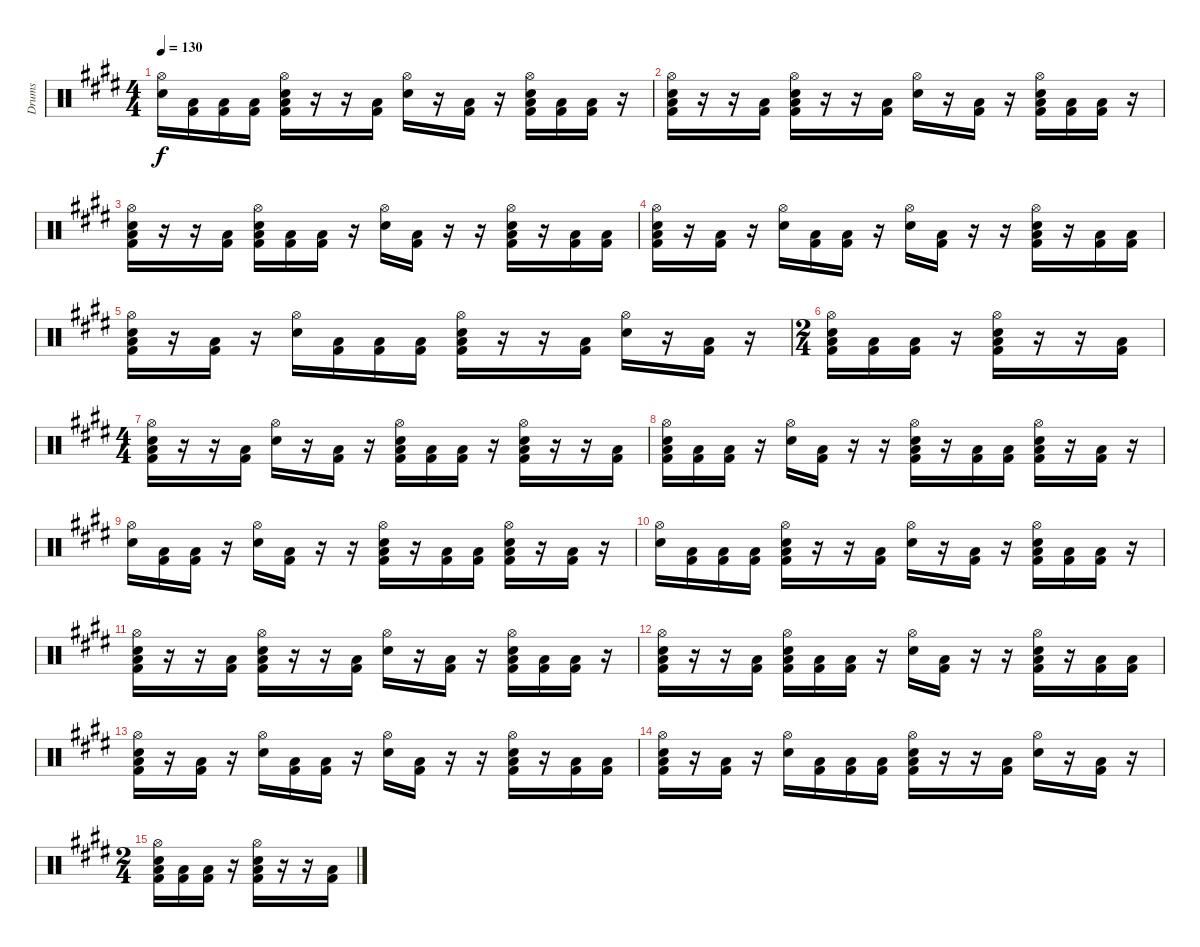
\track ("Drums" "Drums") {instrument percussion}
\staff {score}
\articulation defaults
\ts (4 4)
\tempo 130
\clef neutral
\ks e
("Hi-Hat (open)" "Electric Snare (hit)").16{dy f} ("Low Floor Tom (hit)" "Kick (hit) 2").16 ("Low Floor Tom (hit)" "Kick (hit) 2").16 ("Low Floor Tom (hit)" "Kick (hit) 2").16 ("Low Floor Tom (hit)" "Hi-Hat (open)" "Electric Snare (hit)" "Kick (hit) 2").16 r.16 r.16 ("Low Floor Tom (hit)" "Kick (hit) 2").16 ("Hi-Hat (open)" "Electric Snare (hit)").16 r.16 ("Low Floor Tom (hit)" "Kick (hit) 2").16 r.16 ("Low Floor Tom (hit)" "Hi-Hat (open)" "Electric Snare (hit)" "Kick (hit) 2").16 ("Low Floor Tom (hit)" "Kick (hit) 2").16 ("Low Floor Tom (hit)" "Kick (hit) 2").16 r.16 |
("Low Floor Tom (hit)" "Hi-Hat (open)" "Electric Snare (hit)" "Kick (hit) 2").16 r.16 r.16 ("Low Floor Tom (hit)" "Kick (hit) 2").16 ("Low Floor Tom (hit)" "Hi-Hat (open)" "Electric Snare (hit)" "Kick (hit) 2").16 r.16 r.16 ("Low Floor Tom (hit)" "Kick (hit) 2").16 ("Hi-Hat (open)" "Electric Snare (hit)").16 r.16 ("Low Floor Tom (hit)" "Kick (hit) 2").16 r.16 ("Low Floor Tom (hit)" "Hi-Hat (open)" "Electric Snare (hit)" "Kick (hit) 2").16 ("Low Floor Tom (hit)" "Kick (hit) 2").16 ("Low Floor Tom (hit)" "Kick (hit) 2").16 r.16 |
("Low Floor Tom (hit)" "Hi-Hat (open)" "Electric Snare (hit)" "Kick (hit) 2").16 r.16 r.16 ("Low Floor Tom (hit)" "Kick (hit) 2").16 ("Low Floor Tom (hit)" "Hi-Hat (open)" "Electric Snare (hit)" "Kick (hit) 2").16 ("Low Floor Tom (hit)" "Kick (hit) 2").16 ("Low Floor Tom (hit)" "Kick (hit) 2").16 r.16 ("Hi-Hat (open)" "Electric Snare (hit)").16 ("Low Floor Tom (hit)" "Kick (hit) 2").16 r.16 r.16 ("Low Floor Tom (hit)" "Hi-Hat (open)" "Electric Snare (hit)" "Kick (hit) 2").16 r.16 ("Low Floor Tom (hit)" "Kick (hit) 2").16 ("Low Floor Tom (hit)" "Kick (hit) 2").16 |
("Low Floor Tom (hit)" "Hi-Hat (open)" "Electric Snare (hit)" "Kick (hit) 2").16 r.16 ("Low Floor Tom (hit)" "Kick (hit) 2").16 r.16 ("Hi-Hat (open)" "Electric Snare (hit)").16 ("Low Floor Tom (hit)" "Kick (hit) 2").16 ("Low Floor Tom (hit)" "Kick (hit) 2").16 r.16 ("Hi-Hat (open)" "Electric Snare (hit)").16 ("Low Floor Tom (hit)" "Kick (hit) 2").16 r.16 r.16 ("Low Floor Tom (hit)" "Hi-Hat (open)" "Electric Snare (hit)" "Kick (hit) 2").16 r.16 ("Low Floor Tom (hit)" "Kick (hit) 2").16 ("Low Floor Tom (hit)" "Kick (hit) 2").16 |
("Low Floor Tom (hit)" "Hi-Hat (open)" "Electric Snare (hit)" "Kick (hit) 2").16 r.16 ("Low Floor Tom (hit)" "Kick (hit) 2").16 r.16 ("Hi-Hat (open)" "Electric Snare (hit)").16 ("Low Floor Tom (hit)" "Kick (hit) 2").16 ("Low Floor Tom (hit)" "Kick (hit) 2").16 ("Low Floor Tom (hit)" "Kick (hit) 2").16 ("Low Floor Tom (hit)" "Hi-Hat (open)" "Electric Snare (hit)" "Kick (hit) 2").16 r.16 r.16 ("Low Floor Tom (hit)" "Kick (hit) 2").16 ("Hi-Hat (open)" "Electric Snare (hit)").16 r.16 ("Low Floor Tom (hit)" "Kick (hit) 2").16 r.16 |
\ts (2 4)
("Low Floor Tom (hit)" "Hi-Hat (open)" "Electric Snare (hit)" "Kick (hit) 2").16 ("Low Floor Tom (hit)" "Kick (hit) 2").16 ("Low Floor Tom (hit)" "Kick (hit) 2").16 r.16 ("Low Floor Tom (hit)" "Hi-Hat (open)" "Electric Snare (hit)" "Kick (hit) 2").16 r.16 r.16 ("Low Floor Tom (hit)" "Kick (hit) 2").16 |
\ts (4 4)
("Low Floor Tom (hit)" "Hi-Hat (open)" "Electric Snare (hit)" "Kick (hit) 2").16 r.16 r.16 ("Low Floor Tom (hit)" "Kick (hit) 2").16 ("Hi-Hat (open)" "Electric Snare (hit)").16 r.16 ("Low Floor Tom (hit)" "Kick (hit) 2").16 r.16 ("Low Floor Tom (hit)" "Hi-Hat (open)" "Electric Snare (hit)" "Kick (hit) 2").16 ("Low Floor Tom (hit)" "Kick (hit) 2").16 ("Low Floor Tom (hit)" "Kick (hit) 2").16 r.16 ("Low Floor Tom (hit)" "Hi-Hat (open)" "Electric Snare (hit)" "Kick (hit) 2").16 r.16 r.16 ("Low Floor Tom (hit)" "Kick (hit) 2").16 |
("Low Floor Tom (hit)" "Hi-Hat (open)" "Electric Snare (hit)" "Kick (hit) 2").16 ("Low Floor Tom (hit)" "Kick (hit) 2").16 ("Low Floor Tom (hit)" "Kick (hit) 2").16 r.16 ("Hi-Hat (open)" "Electric Snare (hit)").16 ("Low Floor Tom (hit)" "Kick (hit) 2").16 r.16 r.16 ("Low Floor Tom (hit)" "Hi-Hat (open)" "Electric Snare (hit)" "Kick (hit) 2").16 r.16 ("Low Floor Tom (hit)" "Kick (hit) 2").16 ("Low Floor Tom (hit)" "Kick (hit) 2").16 ("Low Floor Tom (hit)" "Hi-Hat (open)" "Electric Snare (hit)" "Kick (hit) 2").16 r.16 ("Low Floor Tom (hit)" "Kick (hit) 2").16 r.16 |
("Hi-Hat (open)" "Electric Snare (hit)").16 ("Low Floor Tom (hit)" "Kick (hit) 2").16 ("Low Floor Tom (hit)" "Kick (hit) 2").16 r.16 ("Hi-Hat (open)" "Electric Snare (hit)").16 ("Low Floor Tom (hit)" "Kick (hit) 2").16 r.16 r.16 ("Low Floor Tom (hit)" "Hi-Hat (open)" "Electric Snare (hit)" "Kick (hit) 2").16 r.16 ("Low Floor Tom (hit)" "Kick (hit) 2").16 ("Low Floor Tom (hit)" "Kick (hit) 2").16 ("Low Floor Tom (hit)" "Hi-Hat (open)" "Electric Snare (hit)" "Kick (hit) 2").16 r.16 ("Low Floor Tom (hit)" "Kick (hit) 2").16 r.16 |
("Hi-Hat (open)" "Electric Snare (hit)").16 ("Low Floor Tom (hit)" "Kick (hit) 2").16 ("Low Floor Tom (hit)" "Kick (hit) 2").16 ("Low Floor Tom (hit)" "Kick (hit) 2").16 ("Low Floor Tom (hit)" "Hi-Hat (open)" "Electric Snare (hit)" "Kick (hit) 2").16 r.16 r.16 ("Low Floor Tom (hit)" "Kick (hit) 2").16 ("Hi-Hat (open)" "Electric Snare (hit)").16 r.16 ("Low Floor Tom (hit)" "Kick (hit) 2").16 r.16 ("Low Floor Tom (hit)" "Hi-Hat (open)" "Electric Snare (hit)" "Kick (hit) 2").16 ("Low Floor Tom (hit)" "Kick (hit) 2").16 ("Low Floor Tom (hit)" "Kick (hit) 2").16 r.16 |
("Low Floor Tom (hit)" "Hi-Hat (open)" "Electric Snare (hit)" "Kick (hit) 2").16 r.16 r.16 ("Low Floor Tom (hit)" "Kick (hit) 2").16 ("Low Floor Tom (hit)" "Hi-Hat (open)" "Electric Snare (hit)" "Kick (hit) 2").16 r.16 r.16 ("Low Floor Tom (hit)" "Kick (hit) 2").16 ("Hi-Hat (open)" "Electric Snare (hit)").16 r.16 ("Low Floor Tom (hit)" "Kick (hit) 2").16 r.16 ("Low Floor Tom (hit)" "Hi-Hat (open)" "Electric Snare (hit)" "Kick (hit) 2").16 ("Low Floor Tom (hit)" "Kick (hit) 2").16 ("Low Floor Tom (hit)" "Kick (hit) 2").16 r.16 |
("Low Floor Tom (hit)" "Hi-Hat (open)" "Electric Snare (hit)" "Kick (hit) 2").16 r.16 r.16 ("Low Floor Tom (hit)" "Kick (hit) 2").16 ("Low Floor Tom (hit)" "Hi-Hat (open)" "Electric Snare (hit)" "Kick (hit) 2").16 ("Low Floor Tom (hit)" "Kick (hit) 2").16 ("Low Floor Tom (hit)" "Kick (hit) 2").16 r.16 ("Hi-Hat (open)" "Electric Snare (hit)").16 ("Low Floor Tom (hit)" "Kick (hit) 2").16 r.16 r.16 ("Low Floor Tom (hit)" "Hi-Hat (open)" "Electric Snare (hit)" "Kick (hit) 2").16 r.16 ("Low Floor Tom (hit)" "Kick (hit) 2").16 ("Low Floor Tom (hit)" "Kick (hit) 2").16 |
("Low Floor Tom (hit)" "Hi-Hat (open)" "Electric Snare (hit)" "Kick (hit) 2").16 r.16 ("Low Floor Tom (hit)" "Kick (hit) 2").16 r.16 ("Hi-Hat (open)" "Electric Snare (hit)").16 ("Low Floor Tom (hit)" "Kick (hit) 2").16 ("Low Floor Tom (hit)" "Kick (hit) 2").16 r.16 ("Hi-Hat (open)" "Electric Snare (hit)").16 ("Low Floor Tom (hit)" "Kick (hit) 2").16 r.16 r.16 ("Low Floor Tom (hit)" "Hi-Hat (open)" "Electric Snare (hit)" "Kick (hit) 2").16 r.16 ("Low Floor Tom (hit)" "Kick (hit) 2").16 ("Low Floor Tom (hit)" "Kick (hit) 2").16 |
("Low Floor Tom (hit)" "Hi-Hat (open)" "Electric Snare (hit)" "Kick (hit) 2").16 r.16 ("Low Floor Tom (hit)" "Kick (hit) 2").16 r.16 ("Hi-Hat (open)" "Electric Snare (hit)").16 ("Low Floor Tom (hit)" "Kick (hit) 2").16 ("Low Floor Tom (hit)" "Kick (hit) 2").16 ("Low Floor Tom (hit)" "Kick (hit) 2").16 ("Low Floor Tom (hit)" "Hi-Hat (open)" "Electric Snare (hit)" "Kick (hit) 2").16 r.16 r.16 ("Low Floor Tom (hit)" "Kick (hit) 2").16 ("Hi-Hat (open)" "Electric Snare (hit)").16 r.16 ("Low Floor Tom (hit)" "Kick (hit) 2").16 r.16 |
\ts (2 4)
("Low Floor Tom (hit)" "Hi-Hat (open)" "Electric Snare (hit)" "Kick (hit) 2").16 ("Low Floor Tom (hit)" "Kick (hit) 2").16 ("Low Floor Tom (hit)" "Kick (hit) 2").16 r.16 ("Low Floor Tom (hit)" "Hi-Hat (open)" "Electric Snare (hit)" "Kick (hit) 2").16 r.16 r.16 ("Low Floor Tom (hit)" "Kick (hit) 2").16
